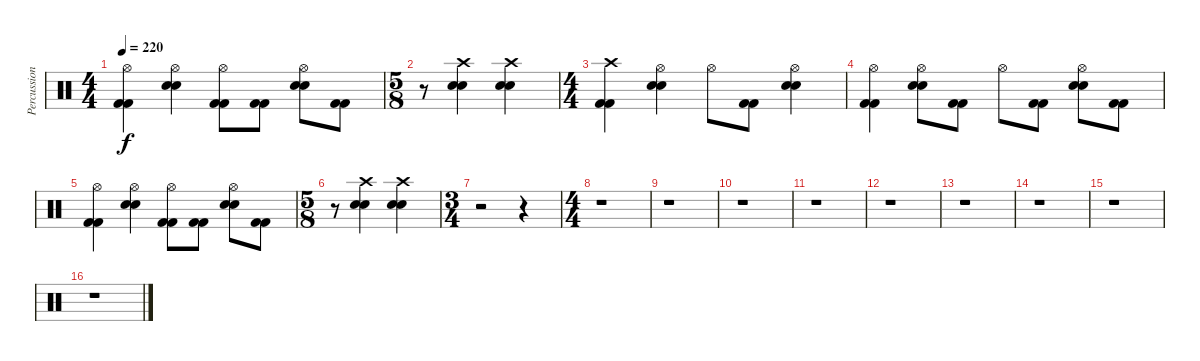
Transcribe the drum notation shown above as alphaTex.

\track ("Percussion" "Percussion") {instrument percussion}
\staff {score}
\articulation defaults
\ts (4 4)
\tempo 220
\clef neutral
\ks c
("Hi-Hat (open)" "Kick (hit) 2" "Kick (hit) 2").4{dy f} ("Hi-Hat (open)" "Electric Snare (hit)" "Electric Snare (hit)").4 ("Hi-Hat (open)" "Kick (hit) 2" "Kick (hit) 2").8 ("Kick (hit) 2" "Kick (hit) 2").8 ("Hi-Hat (open)" "Electric Snare (hit)" "Electric Snare (hit)").8 ("Kick (hit) 2" "Kick (hit) 2").8 |
\ts (5 8)
r.8 ("Crash high (hit)" "Electric Snare (hit)" "Electric Snare (hit)").4 ("Crash high (hit)" "Electric Snare (hit)" "Electric Snare (hit)").4 |
\ts (4 4)
("Crash high (hit)" "Kick (hit) 2" "Kick (hit) 2").4 ("Hi-Hat (open)" "Electric Snare (hit)" "Electric Snare (hit)").4 "Hi-Hat (open)".8 ("Kick (hit) 2" "Kick (hit) 2").8 ("Hi-Hat (open)" "Electric Snare (hit)" "Electric Snare (hit)").4 |
("Hi-Hat (open)" "Kick (hit) 2" "Kick (hit) 2").4 ("Hi-Hat (open)" "Electric Snare (hit)" "Electric Snare (hit)").8 ("Kick (hit) 2" "Kick (hit) 2").8 "Hi-Hat (open)".8 ("Kick (hit) 2" "Kick (hit) 2").8 ("Hi-Hat (open)" "Electric Snare (hit)" "Electric Snare (hit)").8 ("Kick (hit) 2" "Kick (hit) 2").8 |
("Hi-Hat (open)" "Kick (hit) 2" "Kick (hit) 2").4 ("Hi-Hat (open)" "Electric Snare (hit)" "Electric Snare (hit)").4 ("Hi-Hat (open)" "Kick (hit) 2" "Kick (hit) 2").8 ("Kick (hit) 2" "Kick (hit) 2").8 ("Hi-Hat (open)" "Electric Snare (hit)" "Electric Snare (hit)").8 ("Kick (hit) 2" "Kick (hit) 2").8 |
\ts (5 8)
r.8 ("Crash high (hit)" "Electric Snare (hit)" "Electric Snare (hit)").4 ("Crash high (hit)" "Electric Snare (hit)" "Electric Snare (hit)").4 |
\ts (3 4)
r.2 r.4 |
\ts (4 4)
r.1 |
r.1 |
r.1 |
r.1 |
r.1 |
r.1 |
r.1 |
r.1 |
r.1
